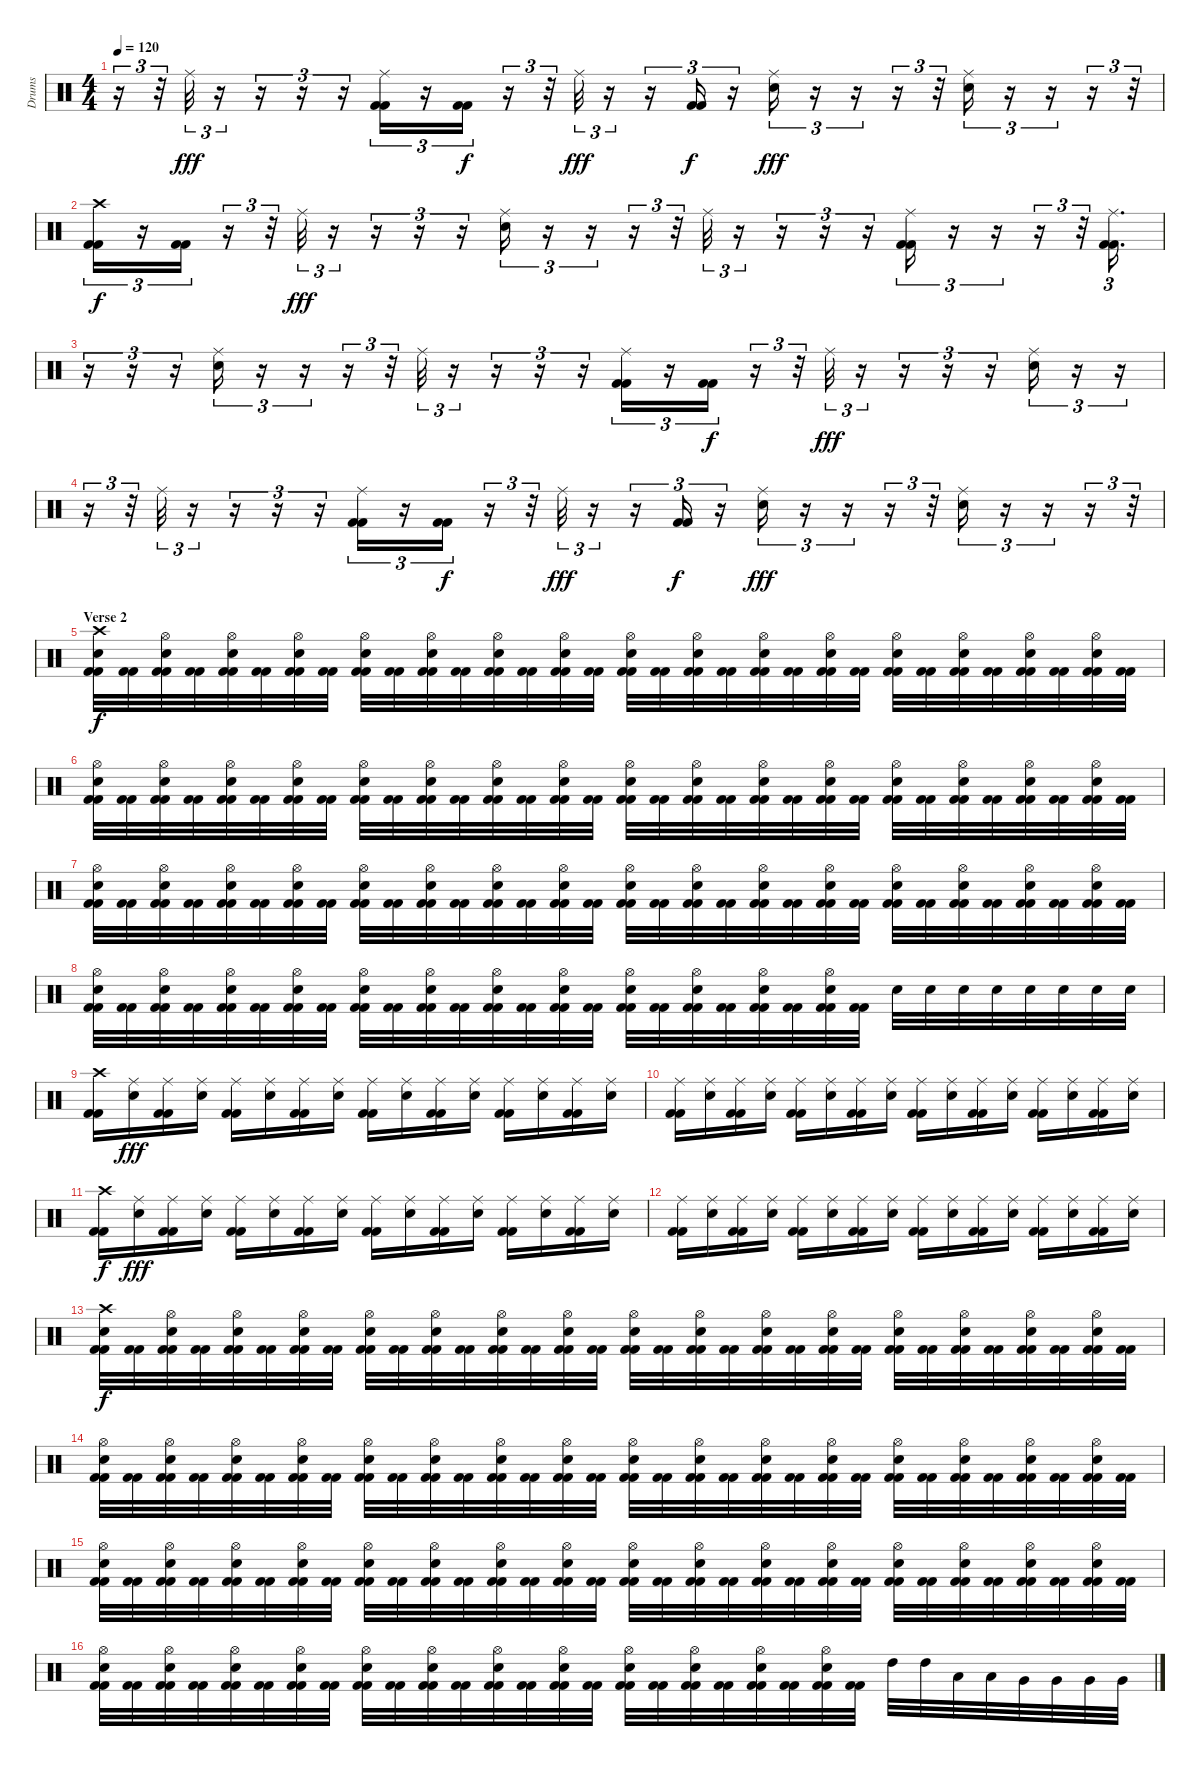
\track ("Drums" "Drums") {instrument percussion}
\staff {score}
\articulation defaults
\ts (4 4)
\tempo 120
\clef neutral
\ks c
r.16{tu (3 2) dy fff} r.32{tu (3 2)} "Ride (middle)".32{tu (3 2)} r.16{tu (3 2)} r.16{tu (3 2)} r.16{tu (3 2)} r.16{tu (3 2)} ("Kick (hit) 2" "Kick (hit) 2" "Ride (middle)").16{tu (3 2)} r.16{tu (3 2)} ("Kick (hit) 2" "Kick (hit) 2").16{tu (3 2) dy f} r.16{tu (3 2)} r.32{tu (3 2)} "Ride (middle)".32{tu (3 2) dy fff} r.16{tu (3 2)} r.16{tu (3 2)} ("Kick (hit) 2" "Kick (hit) 2").16{tu (3 2) dy f} r.16{tu (3 2)} ("Electric Snare (hit)" "Ride (middle)").16{tu (3 2) dy fff} r.16{tu (3 2)} r.16{tu (3 2)} r.16{tu (3 2)} r.32{tu (3 2)} ("Electric Snare (hit)" "Ride (middle)").16{tu (3 2)} r.16{tu (3 2)} r.16{tu (3 2)} r.16{tu (3 2)} r.32{tu (3 2)} |
("Kick (hit) 2" "Kick (hit) 2" "Crash high (hit)").16{tu (3 2) dy f} r.16{tu (3 2)} ("Kick (hit) 2" "Kick (hit) 2").16{tu (3 2)} r.16{tu (3 2)} r.32{tu (3 2)} "Ride (middle)".32{tu (3 2) dy fff} r.16{tu (3 2)} r.16{tu (3 2)} r.16{tu (3 2)} r.16{tu (3 2)} ("Electric Snare (hit)" "Ride (middle)").16{tu (3 2)} r.16{tu (3 2)} r.16{tu (3 2)} r.16{tu (3 2)} r.32{tu (3 2)} "Ride (middle)".32{tu (3 2)} r.16{tu (3 2)} r.16{tu (3 2)} r.16{tu (3 2)} r.16{tu (3 2)} ("Kick (hit) 2" "Kick (hit) 2" "Ride (middle)").16{tu (3 2)} r.16{tu (3 2)} r.16{tu (3 2)} r.16{tu (3 2)} r.32{tu (3 2)} ("Kick (hit) 2" "Kick (hit) 2" "Ride (middle)").16{d tu (3 2)} |
r.16{tu (3 2)} r.16{tu (3 2)} r.16{tu (3 2)} ("Electric Snare (hit)" "Ride (middle)").16{tu (3 2)} r.16{tu (3 2)} r.16{tu (3 2)} r.16{tu (3 2)} r.32{tu (3 2)} "Ride (middle)".32{tu (3 2)} r.16{tu (3 2)} r.16{tu (3 2)} r.16{tu (3 2)} r.16{tu (3 2)} ("Kick (hit) 2" "Kick (hit) 2" "Ride (middle)").16{tu (3 2)} r.16{tu (3 2)} ("Kick (hit) 2" "Kick (hit) 2").16{tu (3 2) dy f} r.16{tu (3 2)} r.32{tu (3 2)} "Ride (middle)".32{tu (3 2) dy fff} r.16{tu (3 2)} r.16{tu (3 2)} r.16{tu (3 2)} r.16{tu (3 2)} ("Electric Snare (hit)" "Ride (middle)").16{tu (3 2)} r.16{tu (3 2)} r.16{tu (3 2)} |
r.16{tu (3 2)} r.32{tu (3 2)} "Ride (middle)".32{tu (3 2)} r.16{tu (3 2)} r.16{tu (3 2)} r.16{tu (3 2)} r.16{tu (3 2)} ("Kick (hit) 2" "Kick (hit) 2" "Ride (middle)").16{tu (3 2)} r.16{tu (3 2)} ("Kick (hit) 2" "Kick (hit) 2").16{tu (3 2) dy f} r.16{tu (3 2)} r.32{tu (3 2)} "Ride (middle)".32{tu (3 2) dy fff} r.16{tu (3 2)} r.16{tu (3 2)} ("Kick (hit) 2" "Kick (hit) 2").16{tu (3 2) dy f} r.16{tu (3 2)} ("Electric Snare (hit)" "Ride (middle)").16{tu (3 2) dy fff} r.16{tu (3 2)} r.16{tu (3 2)} r.16{tu (3 2)} r.32{tu (3 2)} ("Electric Snare (hit)" "Ride (middle)").16{tu (3 2)} r.16{tu (3 2)} r.16{tu (3 2)} r.16{tu (3 2)} r.32{tu (3 2)} |
\section ("" "Verse 2")
("Kick (hit) 2" "Kick (hit) 2" "Electric Snare (hit)" "Crash high (hit)").32{dy f} ("Kick (hit) 2" "Kick (hit) 2").32 ("Kick (hit) 2" "Kick (hit) 2" "Electric Snare (hit)" "Hi-Hat (open)").32 ("Kick (hit) 2" "Kick (hit) 2").32 ("Kick (hit) 2" "Kick (hit) 2" "Electric Snare (hit)" "Hi-Hat (open)").32 ("Kick (hit) 2" "Kick (hit) 2").32 ("Kick (hit) 2" "Kick (hit) 2" "Electric Snare (hit)" "Hi-Hat (open)").32 ("Kick (hit) 2" "Kick (hit) 2").32 ("Kick (hit) 2" "Kick (hit) 2" "Electric Snare (hit)" "Hi-Hat (open)").32 ("Kick (hit) 2" "Kick (hit) 2").32 ("Kick (hit) 2" "Kick (hit) 2" "Electric Snare (hit)" "Hi-Hat (open)").32 ("Kick (hit) 2" "Kick (hit) 2").32 ("Kick (hit) 2" "Kick (hit) 2" "Electric Snare (hit)" "Hi-Hat (open)").32 ("Kick (hit) 2" "Kick (hit) 2").32 ("Kick (hit) 2" "Kick (hit) 2" "Electric Snare (hit)" "Hi-Hat (open)").32 ("Kick (hit) 2" "Kick (hit) 2").32 ("Kick (hit) 2" "Kick (hit) 2" "Electric Snare (hit)" "Hi-Hat (open)").32 ("Kick (hit) 2" "Kick (hit) 2").32 ("Kick (hit) 2" "Kick (hit) 2" "Electric Snare (hit)" "Hi-Hat (open)").32 ("Kick (hit) 2" "Kick (hit) 2").32 ("Kick (hit) 2" "Kick (hit) 2" "Electric Snare (hit)" "Hi-Hat (open)").32 ("Kick (hit) 2" "Kick (hit) 2").32 ("Kick (hit) 2" "Kick (hit) 2" "Electric Snare (hit)" "Hi-Hat (open)").32 ("Kick (hit) 2" "Kick (hit) 2").32 ("Kick (hit) 2" "Kick (hit) 2" "Electric Snare (hit)" "Hi-Hat (open)").32 ("Kick (hit) 2" "Kick (hit) 2").32 ("Kick (hit) 2" "Kick (hit) 2" "Electric Snare (hit)" "Hi-Hat (open)").32 ("Kick (hit) 2" "Kick (hit) 2").32 ("Kick (hit) 2" "Kick (hit) 2" "Electric Snare (hit)" "Hi-Hat (open)").32 ("Kick (hit) 2" "Kick (hit) 2").32 ("Kick (hit) 2" "Kick (hit) 2" "Electric Snare (hit)" "Hi-Hat (open)").32 ("Kick (hit) 2" "Kick (hit) 2").32 |
("Kick (hit) 2" "Kick (hit) 2" "Electric Snare (hit)" "Hi-Hat (open)").32 ("Kick (hit) 2" "Kick (hit) 2").32 ("Kick (hit) 2" "Kick (hit) 2" "Electric Snare (hit)" "Hi-Hat (open)").32 ("Kick (hit) 2" "Kick (hit) 2").32 ("Kick (hit) 2" "Kick (hit) 2" "Electric Snare (hit)" "Hi-Hat (open)").32 ("Kick (hit) 2" "Kick (hit) 2").32 ("Kick (hit) 2" "Kick (hit) 2" "Electric Snare (hit)" "Hi-Hat (open)").32 ("Kick (hit) 2" "Kick (hit) 2").32 ("Kick (hit) 2" "Kick (hit) 2" "Electric Snare (hit)" "Hi-Hat (open)").32 ("Kick (hit) 2" "Kick (hit) 2").32 ("Kick (hit) 2" "Kick (hit) 2" "Electric Snare (hit)" "Hi-Hat (open)").32 ("Kick (hit) 2" "Kick (hit) 2").32 ("Kick (hit) 2" "Kick (hit) 2" "Electric Snare (hit)" "Hi-Hat (open)").32 ("Kick (hit) 2" "Kick (hit) 2").32 ("Kick (hit) 2" "Kick (hit) 2" "Electric Snare (hit)" "Hi-Hat (open)").32 ("Kick (hit) 2" "Kick (hit) 2").32 ("Kick (hit) 2" "Kick (hit) 2" "Electric Snare (hit)" "Hi-Hat (open)").32 ("Kick (hit) 2" "Kick (hit) 2").32 ("Kick (hit) 2" "Kick (hit) 2" "Electric Snare (hit)" "Hi-Hat (open)").32 ("Kick (hit) 2" "Kick (hit) 2").32 ("Kick (hit) 2" "Kick (hit) 2" "Electric Snare (hit)" "Hi-Hat (open)").32 ("Kick (hit) 2" "Kick (hit) 2").32 ("Kick (hit) 2" "Kick (hit) 2" "Electric Snare (hit)" "Hi-Hat (open)").32 ("Kick (hit) 2" "Kick (hit) 2").32 ("Kick (hit) 2" "Kick (hit) 2" "Electric Snare (hit)" "Hi-Hat (open)").32 ("Kick (hit) 2" "Kick (hit) 2").32 ("Kick (hit) 2" "Kick (hit) 2" "Electric Snare (hit)" "Hi-Hat (open)").32 ("Kick (hit) 2" "Kick (hit) 2").32 ("Kick (hit) 2" "Kick (hit) 2" "Electric Snare (hit)" "Hi-Hat (open)").32 ("Kick (hit) 2" "Kick (hit) 2").32 ("Kick (hit) 2" "Kick (hit) 2" "Electric Snare (hit)" "Hi-Hat (open)").32 ("Kick (hit) 2" "Kick (hit) 2").32 |
("Kick (hit) 2" "Kick (hit) 2" "Electric Snare (hit)" "Hi-Hat (open)").32 ("Kick (hit) 2" "Kick (hit) 2").32 ("Kick (hit) 2" "Kick (hit) 2" "Electric Snare (hit)" "Hi-Hat (open)").32 ("Kick (hit) 2" "Kick (hit) 2").32 ("Kick (hit) 2" "Kick (hit) 2" "Electric Snare (hit)" "Hi-Hat (open)").32 ("Kick (hit) 2" "Kick (hit) 2").32 ("Kick (hit) 2" "Kick (hit) 2" "Electric Snare (hit)" "Hi-Hat (open)").32 ("Kick (hit) 2" "Kick (hit) 2").32 ("Kick (hit) 2" "Kick (hit) 2" "Electric Snare (hit)" "Hi-Hat (open)").32 ("Kick (hit) 2" "Kick (hit) 2").32 ("Kick (hit) 2" "Kick (hit) 2" "Electric Snare (hit)" "Hi-Hat (open)").32 ("Kick (hit) 2" "Kick (hit) 2").32 ("Kick (hit) 2" "Kick (hit) 2" "Electric Snare (hit)" "Hi-Hat (open)").32 ("Kick (hit) 2" "Kick (hit) 2").32 ("Kick (hit) 2" "Kick (hit) 2" "Electric Snare (hit)" "Hi-Hat (open)").32 ("Kick (hit) 2" "Kick (hit) 2").32 ("Kick (hit) 2" "Kick (hit) 2" "Electric Snare (hit)" "Hi-Hat (open)").32 ("Kick (hit) 2" "Kick (hit) 2").32 ("Kick (hit) 2" "Kick (hit) 2" "Electric Snare (hit)" "Hi-Hat (open)").32 ("Kick (hit) 2" "Kick (hit) 2").32 ("Kick (hit) 2" "Kick (hit) 2" "Electric Snare (hit)" "Hi-Hat (open)").32 ("Kick (hit) 2" "Kick (hit) 2").32 ("Kick (hit) 2" "Kick (hit) 2" "Electric Snare (hit)" "Hi-Hat (open)").32 ("Kick (hit) 2" "Kick (hit) 2").32 ("Kick (hit) 2" "Kick (hit) 2" "Electric Snare (hit)" "Hi-Hat (open)").32 ("Kick (hit) 2" "Kick (hit) 2").32 ("Kick (hit) 2" "Kick (hit) 2" "Electric Snare (hit)" "Hi-Hat (open)").32 ("Kick (hit) 2" "Kick (hit) 2").32 ("Kick (hit) 2" "Kick (hit) 2" "Electric Snare (hit)" "Hi-Hat (open)").32 ("Kick (hit) 2" "Kick (hit) 2").32 ("Kick (hit) 2" "Kick (hit) 2" "Electric Snare (hit)" "Hi-Hat (open)").32 ("Kick (hit) 2" "Kick (hit) 2").32 |
("Kick (hit) 2" "Kick (hit) 2" "Electric Snare (hit)" "Hi-Hat (open)").32 ("Kick (hit) 2" "Kick (hit) 2").32 ("Kick (hit) 2" "Kick (hit) 2" "Electric Snare (hit)" "Hi-Hat (open)").32 ("Kick (hit) 2" "Kick (hit) 2").32 ("Kick (hit) 2" "Kick (hit) 2" "Electric Snare (hit)" "Hi-Hat (open)").32 ("Kick (hit) 2" "Kick (hit) 2").32 ("Kick (hit) 2" "Kick (hit) 2" "Electric Snare (hit)" "Hi-Hat (open)").32 ("Kick (hit) 2" "Kick (hit) 2").32 ("Kick (hit) 2" "Kick (hit) 2" "Electric Snare (hit)" "Hi-Hat (open)").32 ("Kick (hit) 2" "Kick (hit) 2").32 ("Kick (hit) 2" "Kick (hit) 2" "Electric Snare (hit)" "Hi-Hat (open)").32 ("Kick (hit) 2" "Kick (hit) 2").32 ("Kick (hit) 2" "Kick (hit) 2" "Electric Snare (hit)" "Hi-Hat (open)").32 ("Kick (hit) 2" "Kick (hit) 2").32 ("Kick (hit) 2" "Kick (hit) 2" "Electric Snare (hit)" "Hi-Hat (open)").32 ("Kick (hit) 2" "Kick (hit) 2").32 ("Kick (hit) 2" "Kick (hit) 2" "Electric Snare (hit)" "Hi-Hat (open)").32 ("Kick (hit) 2" "Kick (hit) 2").32 ("Kick (hit) 2" "Kick (hit) 2" "Electric Snare (hit)" "Hi-Hat (open)").32 ("Kick (hit) 2" "Kick (hit) 2").32 ("Kick (hit) 2" "Kick (hit) 2" "Electric Snare (hit)" "Hi-Hat (open)").32 ("Kick (hit) 2" "Kick (hit) 2").32 ("Kick (hit) 2" "Kick (hit) 2" "Electric Snare (hit)" "Hi-Hat (open)").32 ("Kick (hit) 2" "Kick (hit) 2").32 "Electric Snare (hit)".32 "Electric Snare (hit)".32 "Electric Snare (hit)".32 "Electric Snare (hit)".32 "Electric Snare (hit)".32 "Electric Snare (hit)".32 "Electric Snare (hit)".32 "Electric Snare (hit)".32 |
("Kick (hit) 2" "Kick (hit) 2" "Crash high (hit)").16 ("Electric Snare (hit)" "Ride (middle)").16{dy fff} ("Kick (hit) 2" "Kick (hit) 2" "Ride (middle)").16 ("Electric Snare (hit)" "Ride (middle)").16 ("Kick (hit) 2" "Kick (hit) 2" "Ride (middle)").16 ("Electric Snare (hit)" "Ride (middle)").16 ("Kick (hit) 2" "Kick (hit) 2" "Ride (middle)").16 ("Electric Snare (hit)" "Ride (middle)").16 ("Kick (hit) 2" "Kick (hit) 2" "Ride (middle)").16 ("Electric Snare (hit)" "Ride (middle)").16 ("Kick (hit) 2" "Kick (hit) 2" "Ride (middle)").16 ("Electric Snare (hit)" "Ride (middle)").16 ("Kick (hit) 2" "Kick (hit) 2" "Ride (middle)").16 ("Electric Snare (hit)" "Ride (middle)").16 ("Kick (hit) 2" "Kick (hit) 2" "Ride (middle)").16 ("Electric Snare (hit)" "Ride (middle)").16 |
("Kick (hit) 2" "Kick (hit) 2" "Ride (middle)").16 ("Electric Snare (hit)" "Ride (middle)").16 ("Kick (hit) 2" "Kick (hit) 2" "Ride (middle)").16 ("Electric Snare (hit)" "Ride (middle)").16 ("Kick (hit) 2" "Kick (hit) 2" "Ride (middle)").16 ("Electric Snare (hit)" "Ride (middle)").16 ("Kick (hit) 2" "Kick (hit) 2" "Ride (middle)").16 ("Electric Snare (hit)" "Ride (middle)").16 ("Kick (hit) 2" "Kick (hit) 2" "Ride (middle)").16 ("Electric Snare (hit)" "Ride (middle)").16 ("Kick (hit) 2" "Kick (hit) 2" "Ride (middle)").16 ("Electric Snare (hit)" "Ride (middle)").16 ("Kick (hit) 2" "Kick (hit) 2" "Ride (middle)").16 ("Electric Snare (hit)" "Ride (middle)").16 ("Kick (hit) 2" "Kick (hit) 2" "Ride (middle)").16 ("Electric Snare (hit)" "Ride (middle)").16 |
("Kick (hit) 2" "Kick (hit) 2" "Crash high (hit)").16{dy f} ("Electric Snare (hit)" "Ride (middle)").16{dy fff} ("Kick (hit) 2" "Kick (hit) 2" "Ride (middle)").16 ("Electric Snare (hit)" "Ride (middle)").16 ("Kick (hit) 2" "Kick (hit) 2" "Ride (middle)").16 ("Electric Snare (hit)" "Ride (middle)").16 ("Kick (hit) 2" "Kick (hit) 2" "Ride (middle)").16 ("Electric Snare (hit)" "Ride (middle)").16 ("Kick (hit) 2" "Kick (hit) 2" "Ride (middle)").16 ("Electric Snare (hit)" "Ride (middle)").16 ("Kick (hit) 2" "Kick (hit) 2" "Ride (middle)").16 ("Electric Snare (hit)" "Ride (middle)").16 ("Kick (hit) 2" "Kick (hit) 2" "Ride (middle)").16 ("Electric Snare (hit)" "Ride (middle)").16 ("Kick (hit) 2" "Kick (hit) 2" "Ride (middle)").16 ("Electric Snare (hit)" "Ride (middle)").16 |
("Kick (hit) 2" "Kick (hit) 2" "Ride (middle)").16 ("Electric Snare (hit)" "Ride (middle)").16 ("Kick (hit) 2" "Kick (hit) 2" "Ride (middle)").16 ("Electric Snare (hit)" "Ride (middle)").16 ("Kick (hit) 2" "Kick (hit) 2" "Ride (middle)").16 ("Electric Snare (hit)" "Ride (middle)").16 ("Kick (hit) 2" "Kick (hit) 2" "Ride (middle)").16 ("Electric Snare (hit)" "Ride (middle)").16 ("Kick (hit) 2" "Kick (hit) 2" "Ride (middle)").16 ("Electric Snare (hit)" "Ride (middle)").16 ("Kick (hit) 2" "Kick (hit) 2" "Ride (middle)").16 ("Electric Snare (hit)" "Ride (middle)").16 ("Kick (hit) 2" "Kick (hit) 2" "Ride (middle)").16 ("Electric Snare (hit)" "Ride (middle)").16 ("Kick (hit) 2" "Kick (hit) 2" "Ride (middle)").16 ("Electric Snare (hit)" "Ride (middle)").16 |
("Kick (hit) 2" "Kick (hit) 2" "Electric Snare (hit)" "Crash high (hit)").32{dy f} ("Kick (hit) 2" "Kick (hit) 2").32 ("Kick (hit) 2" "Kick (hit) 2" "Electric Snare (hit)" "Hi-Hat (open)").32 ("Kick (hit) 2" "Kick (hit) 2").32 ("Kick (hit) 2" "Kick (hit) 2" "Electric Snare (hit)" "Hi-Hat (open)").32 ("Kick (hit) 2" "Kick (hit) 2").32 ("Kick (hit) 2" "Kick (hit) 2" "Electric Snare (hit)" "Hi-Hat (open)").32 ("Kick (hit) 2" "Kick (hit) 2").32 ("Kick (hit) 2" "Kick (hit) 2" "Electric Snare (hit)" "Hi-Hat (open)").32 ("Kick (hit) 2" "Kick (hit) 2").32 ("Kick (hit) 2" "Kick (hit) 2" "Electric Snare (hit)" "Hi-Hat (open)").32 ("Kick (hit) 2" "Kick (hit) 2").32 ("Kick (hit) 2" "Kick (hit) 2" "Electric Snare (hit)" "Hi-Hat (open)").32 ("Kick (hit) 2" "Kick (hit) 2").32 ("Kick (hit) 2" "Kick (hit) 2" "Electric Snare (hit)" "Hi-Hat (open)").32 ("Kick (hit) 2" "Kick (hit) 2").32 ("Kick (hit) 2" "Kick (hit) 2" "Electric Snare (hit)" "Hi-Hat (open)").32 ("Kick (hit) 2" "Kick (hit) 2").32 ("Kick (hit) 2" "Kick (hit) 2" "Electric Snare (hit)" "Hi-Hat (open)").32 ("Kick (hit) 2" "Kick (hit) 2").32 ("Kick (hit) 2" "Kick (hit) 2" "Electric Snare (hit)" "Hi-Hat (open)").32 ("Kick (hit) 2" "Kick (hit) 2").32 ("Kick (hit) 2" "Kick (hit) 2" "Electric Snare (hit)" "Hi-Hat (open)").32 ("Kick (hit) 2" "Kick (hit) 2").32 ("Kick (hit) 2" "Kick (hit) 2" "Electric Snare (hit)" "Hi-Hat (open)").32 ("Kick (hit) 2" "Kick (hit) 2").32 ("Kick (hit) 2" "Kick (hit) 2" "Electric Snare (hit)" "Hi-Hat (open)").32 ("Kick (hit) 2" "Kick (hit) 2").32 ("Kick (hit) 2" "Kick (hit) 2" "Electric Snare (hit)" "Hi-Hat (open)").32 ("Kick (hit) 2" "Kick (hit) 2").32 ("Kick (hit) 2" "Kick (hit) 2" "Electric Snare (hit)" "Hi-Hat (open)").32 ("Kick (hit) 2" "Kick (hit) 2").32 |
("Kick (hit) 2" "Kick (hit) 2" "Electric Snare (hit)" "Hi-Hat (open)").32 ("Kick (hit) 2" "Kick (hit) 2").32 ("Kick (hit) 2" "Kick (hit) 2" "Electric Snare (hit)" "Hi-Hat (open)").32 ("Kick (hit) 2" "Kick (hit) 2").32 ("Kick (hit) 2" "Kick (hit) 2" "Electric Snare (hit)" "Hi-Hat (open)").32 ("Kick (hit) 2" "Kick (hit) 2").32 ("Kick (hit) 2" "Kick (hit) 2" "Electric Snare (hit)" "Hi-Hat (open)").32 ("Kick (hit) 2" "Kick (hit) 2").32 ("Kick (hit) 2" "Kick (hit) 2" "Electric Snare (hit)" "Hi-Hat (open)").32 ("Kick (hit) 2" "Kick (hit) 2").32 ("Kick (hit) 2" "Kick (hit) 2" "Electric Snare (hit)" "Hi-Hat (open)").32 ("Kick (hit) 2" "Kick (hit) 2").32 ("Kick (hit) 2" "Kick (hit) 2" "Electric Snare (hit)" "Hi-Hat (open)").32 ("Kick (hit) 2" "Kick (hit) 2").32 ("Kick (hit) 2" "Kick (hit) 2" "Electric Snare (hit)" "Hi-Hat (open)").32 ("Kick (hit) 2" "Kick (hit) 2").32 ("Kick (hit) 2" "Kick (hit) 2" "Electric Snare (hit)" "Hi-Hat (open)").32 ("Kick (hit) 2" "Kick (hit) 2").32 ("Kick (hit) 2" "Kick (hit) 2" "Electric Snare (hit)" "Hi-Hat (open)").32 ("Kick (hit) 2" "Kick (hit) 2").32 ("Kick (hit) 2" "Kick (hit) 2" "Electric Snare (hit)" "Hi-Hat (open)").32 ("Kick (hit) 2" "Kick (hit) 2").32 ("Kick (hit) 2" "Kick (hit) 2" "Electric Snare (hit)" "Hi-Hat (open)").32 ("Kick (hit) 2" "Kick (hit) 2").32 ("Kick (hit) 2" "Kick (hit) 2" "Electric Snare (hit)" "Hi-Hat (open)").32 ("Kick (hit) 2" "Kick (hit) 2").32 ("Kick (hit) 2" "Kick (hit) 2" "Electric Snare (hit)" "Hi-Hat (open)").32 ("Kick (hit) 2" "Kick (hit) 2").32 ("Kick (hit) 2" "Kick (hit) 2" "Electric Snare (hit)" "Hi-Hat (open)").32 ("Kick (hit) 2" "Kick (hit) 2").32 ("Kick (hit) 2" "Kick (hit) 2" "Electric Snare (hit)" "Hi-Hat (open)").32 ("Kick (hit) 2" "Kick (hit) 2").32 |
("Kick (hit) 2" "Kick (hit) 2" "Electric Snare (hit)" "Hi-Hat (open)").32 ("Kick (hit) 2" "Kick (hit) 2").32 ("Kick (hit) 2" "Kick (hit) 2" "Electric Snare (hit)" "Hi-Hat (open)").32 ("Kick (hit) 2" "Kick (hit) 2").32 ("Kick (hit) 2" "Kick (hit) 2" "Electric Snare (hit)" "Hi-Hat (open)").32 ("Kick (hit) 2" "Kick (hit) 2").32 ("Kick (hit) 2" "Kick (hit) 2" "Electric Snare (hit)" "Hi-Hat (open)").32 ("Kick (hit) 2" "Kick (hit) 2").32 ("Kick (hit) 2" "Kick (hit) 2" "Electric Snare (hit)" "Hi-Hat (open)").32 ("Kick (hit) 2" "Kick (hit) 2").32 ("Kick (hit) 2" "Kick (hit) 2" "Electric Snare (hit)" "Hi-Hat (open)").32 ("Kick (hit) 2" "Kick (hit) 2").32 ("Kick (hit) 2" "Kick (hit) 2" "Electric Snare (hit)" "Hi-Hat (open)").32 ("Kick (hit) 2" "Kick (hit) 2").32 ("Kick (hit) 2" "Kick (hit) 2" "Electric Snare (hit)" "Hi-Hat (open)").32 ("Kick (hit) 2" "Kick (hit) 2").32 ("Kick (hit) 2" "Kick (hit) 2" "Electric Snare (hit)" "Hi-Hat (open)").32 ("Kick (hit) 2" "Kick (hit) 2").32 ("Kick (hit) 2" "Kick (hit) 2" "Electric Snare (hit)" "Hi-Hat (open)").32 ("Kick (hit) 2" "Kick (hit) 2").32 ("Kick (hit) 2" "Kick (hit) 2" "Electric Snare (hit)" "Hi-Hat (open)").32 ("Kick (hit) 2" "Kick (hit) 2").32 ("Kick (hit) 2" "Kick (hit) 2" "Electric Snare (hit)" "Hi-Hat (open)").32 ("Kick (hit) 2" "Kick (hit) 2").32 ("Kick (hit) 2" "Kick (hit) 2" "Electric Snare (hit)" "Hi-Hat (open)").32 ("Kick (hit) 2" "Kick (hit) 2").32 ("Kick (hit) 2" "Kick (hit) 2" "Electric Snare (hit)" "Hi-Hat (open)").32 ("Kick (hit) 2" "Kick (hit) 2").32 ("Kick (hit) 2" "Kick (hit) 2" "Electric Snare (hit)" "Hi-Hat (open)").32 ("Kick (hit) 2" "Kick (hit) 2").32 ("Kick (hit) 2" "Kick (hit) 2" "Electric Snare (hit)" "Hi-Hat (open)").32 ("Kick (hit) 2" "Kick (hit) 2").32 |
("Kick (hit) 2" "Kick (hit) 2" "Electric Snare (hit)" "Hi-Hat (open)").32 ("Kick (hit) 2" "Kick (hit) 2").32 ("Kick (hit) 2" "Kick (hit) 2" "Electric Snare (hit)" "Hi-Hat (open)").32 ("Kick (hit) 2" "Kick (hit) 2").32 ("Kick (hit) 2" "Kick (hit) 2" "Electric Snare (hit)" "Hi-Hat (open)").32 ("Kick (hit) 2" "Kick (hit) 2").32 ("Kick (hit) 2" "Kick (hit) 2" "Electric Snare (hit)" "Hi-Hat (open)").32 ("Kick (hit) 2" "Kick (hit) 2").32 ("Kick (hit) 2" "Kick (hit) 2" "Electric Snare (hit)" "Hi-Hat (open)").32 ("Kick (hit) 2" "Kick (hit) 2").32 ("Kick (hit) 2" "Kick (hit) 2" "Electric Snare (hit)" "Hi-Hat (open)").32 ("Kick (hit) 2" "Kick (hit) 2").32 ("Kick (hit) 2" "Kick (hit) 2" "Electric Snare (hit)" "Hi-Hat (open)").32 ("Kick (hit) 2" "Kick (hit) 2").32 ("Kick (hit) 2" "Kick (hit) 2" "Electric Snare (hit)" "Hi-Hat (open)").32 ("Kick (hit) 2" "Kick (hit) 2").32 ("Kick (hit) 2" "Kick (hit) 2" "Electric Snare (hit)" "Hi-Hat (open)").32 ("Kick (hit) 2" "Kick (hit) 2").32 ("Kick (hit) 2" "Kick (hit) 2" "Electric Snare (hit)" "Hi-Hat (open)").32 ("Kick (hit) 2" "Kick (hit) 2").32 ("Kick (hit) 2" "Kick (hit) 2" "Electric Snare (hit)" "Hi-Hat (open)").32 ("Kick (hit) 2" "Kick (hit) 2").32 ("Kick (hit) 2" "Kick (hit) 2" "Electric Snare (hit)" "Hi-Hat (open)").32 ("Kick (hit) 2" "Kick (hit) 2").32 "High Tom (hit)".32 "High Tom (hit)".32 "Low Tom (hit)".32 "Low Tom (hit)".32 "Very Low Tom (hit)".32 "Very Low Tom (hit)".32 "Very Low Tom (hit)".32 "Very Low Tom (hit)".32
